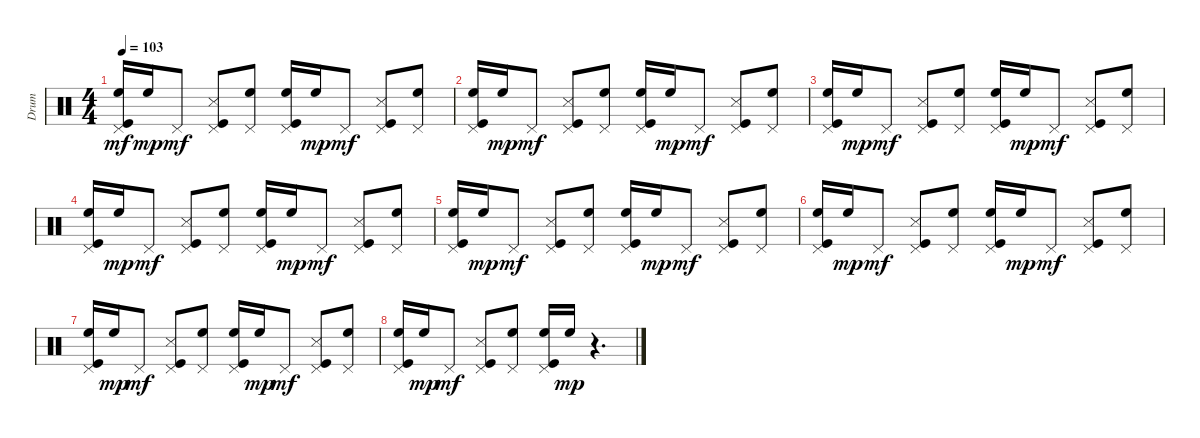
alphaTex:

\track ("Drum" "Drum") {instrument percussion}
\staff {score}
\articulation defaults
\ts (4 4)
\tempo 103
\clef neutral
\ks c
("Kick (hit)" "High Floor Tom (hit)" "Pedal Hi-Hat (hit)").16{dy mf} "High Floor Tom (hit)".16{dy mp} "Pedal Hi-Hat (hit)".8{dy mf} ("Kick (hit)" "Snare (side stick) 3" "Pedal Hi-Hat (hit)").8 ("High Floor Tom (hit)" "Pedal Hi-Hat (hit)").8 ("Kick (hit)" "High Floor Tom (hit)" "Pedal Hi-Hat (hit)").16 "High Floor Tom (hit)".16{dy mp} "Pedal Hi-Hat (hit)".8{dy mf} ("Kick (hit)" "Snare (side stick) 3" "Pedal Hi-Hat (hit)").8 ("High Floor Tom (hit)" "Pedal Hi-Hat (hit)").8 |
("Kick (hit)" "High Floor Tom (hit)" "Pedal Hi-Hat (hit)").16 "High Floor Tom (hit)".16{dy mp} "Pedal Hi-Hat (hit)".8{dy mf} ("Kick (hit)" "Snare (side stick) 3" "Pedal Hi-Hat (hit)").8 ("High Floor Tom (hit)" "Pedal Hi-Hat (hit)").8 ("Kick (hit)" "High Floor Tom (hit)" "Pedal Hi-Hat (hit)").16 "High Floor Tom (hit)".16{dy mp} "Pedal Hi-Hat (hit)".8{dy mf} ("Kick (hit)" "Snare (side stick) 3" "Pedal Hi-Hat (hit)").8 ("High Floor Tom (hit)" "Pedal Hi-Hat (hit)").8 |
("Kick (hit)" "High Floor Tom (hit)" "Pedal Hi-Hat (hit)").16 "High Floor Tom (hit)".16{dy mp} "Pedal Hi-Hat (hit)".8{dy mf} ("Kick (hit)" "Snare (side stick) 3" "Pedal Hi-Hat (hit)").8 ("High Floor Tom (hit)" "Pedal Hi-Hat (hit)").8 ("Kick (hit)" "High Floor Tom (hit)" "Pedal Hi-Hat (hit)").16 "High Floor Tom (hit)".16{dy mp} "Pedal Hi-Hat (hit)".8{dy mf} ("Kick (hit)" "Snare (side stick) 3" "Pedal Hi-Hat (hit)").8 ("High Floor Tom (hit)" "Pedal Hi-Hat (hit)").8 |
("Kick (hit)" "High Floor Tom (hit)" "Pedal Hi-Hat (hit)").16 "High Floor Tom (hit)".16{dy mp} "Pedal Hi-Hat (hit)".8{dy mf} ("Kick (hit)" "Snare (side stick) 3" "Pedal Hi-Hat (hit)").8 ("High Floor Tom (hit)" "Pedal Hi-Hat (hit)").8 ("Kick (hit)" "High Floor Tom (hit)" "Pedal Hi-Hat (hit)").16 "High Floor Tom (hit)".16{dy mp} "Pedal Hi-Hat (hit)".8{dy mf} ("Kick (hit)" "Snare (side stick) 3" "Pedal Hi-Hat (hit)").8 ("High Floor Tom (hit)" "Pedal Hi-Hat (hit)").8 |
("Kick (hit)" "High Floor Tom (hit)" "Pedal Hi-Hat (hit)").16 "High Floor Tom (hit)".16{dy mp} "Pedal Hi-Hat (hit)".8{dy mf} ("Kick (hit)" "Snare (side stick) 3" "Pedal Hi-Hat (hit)").8 ("High Floor Tom (hit)" "Pedal Hi-Hat (hit)").8 ("Kick (hit)" "High Floor Tom (hit)" "Pedal Hi-Hat (hit)").16 "High Floor Tom (hit)".16{dy mp} "Pedal Hi-Hat (hit)".8{dy mf} ("Kick (hit)" "Snare (side stick) 3" "Pedal Hi-Hat (hit)").8 ("High Floor Tom (hit)" "Pedal Hi-Hat (hit)").8 |
("Kick (hit)" "High Floor Tom (hit)" "Pedal Hi-Hat (hit)").16 "High Floor Tom (hit)".16{dy mp} "Pedal Hi-Hat (hit)".8{dy mf} ("Kick (hit)" "Snare (side stick) 3" "Pedal Hi-Hat (hit)").8 ("High Floor Tom (hit)" "Pedal Hi-Hat (hit)").8 ("Kick (hit)" "High Floor Tom (hit)" "Pedal Hi-Hat (hit)").16 "High Floor Tom (hit)".16{dy mp} "Pedal Hi-Hat (hit)".8{dy mf} ("Kick (hit)" "Snare (side stick) 3" "Pedal Hi-Hat (hit)").8 ("High Floor Tom (hit)" "Pedal Hi-Hat (hit)").8 |
("Kick (hit)" "High Floor Tom (hit)" "Pedal Hi-Hat (hit)").16 "High Floor Tom (hit)".16{dy mp} "Pedal Hi-Hat (hit)".8{dy mf} ("Kick (hit)" "Snare (side stick) 3" "Pedal Hi-Hat (hit)").8 ("High Floor Tom (hit)" "Pedal Hi-Hat (hit)").8 ("Kick (hit)" "High Floor Tom (hit)" "Pedal Hi-Hat (hit)").16 "High Floor Tom (hit)".16{dy mp} "Pedal Hi-Hat (hit)".8{dy mf} ("Kick (hit)" "Snare (side stick) 3" "Pedal Hi-Hat (hit)").8 ("High Floor Tom (hit)" "Pedal Hi-Hat (hit)").8 |
("Kick (hit)" "High Floor Tom (hit)" "Pedal Hi-Hat (hit)").16 "High Floor Tom (hit)".16{dy mp} "Pedal Hi-Hat (hit)".8{dy mf} ("Kick (hit)" "Snare (side stick) 3" "Pedal Hi-Hat (hit)").8 ("High Floor Tom (hit)" "Pedal Hi-Hat (hit)").8 ("Kick (hit)" "High Floor Tom (hit)" "Pedal Hi-Hat (hit)").16 "High Floor Tom (hit)".16{dy mp} r.4{d}
